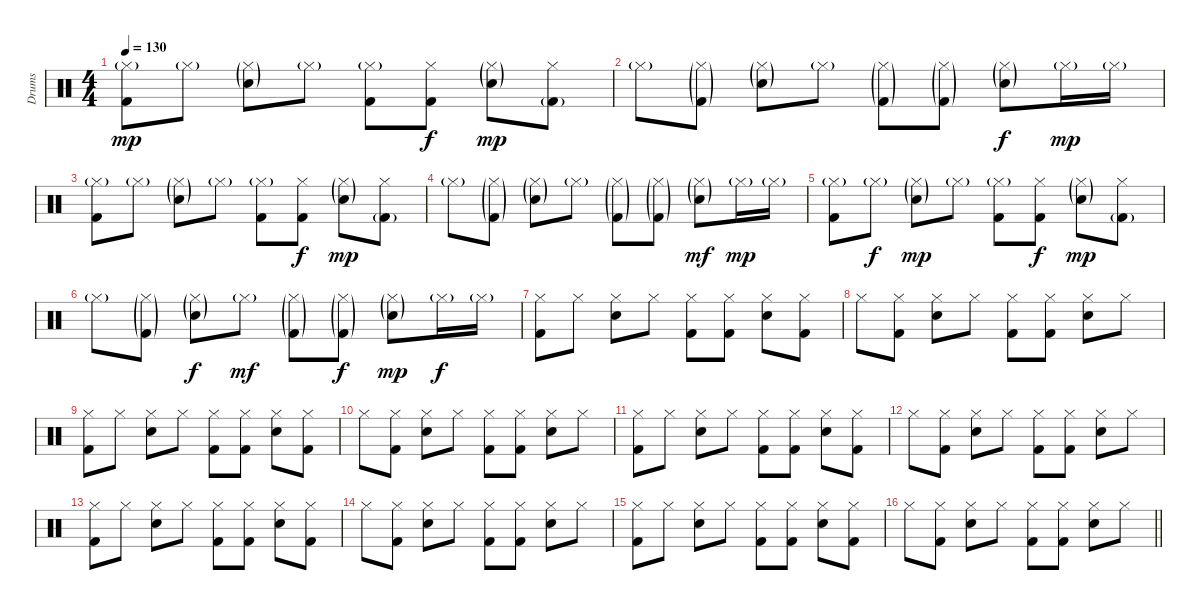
\track ("Drums" "Drums") {instrument percussion}
\staff {score}
\articulation defaults
\ts (4 4)
\tempo 130
\clef neutral
\ks c
("Hi-Hat (closed)"{g} "Kick (hit) 2").8{dy mp} "Hi-Hat (closed)"{g}.8 ("Hi-Hat (closed)"{g} "Electric Snare (hit)"{g}).8 "Hi-Hat (closed)"{g}.8 ("Hi-Hat (closed)"{g} "Kick (hit) 2").8 ("Hi-Hat (closed)" "Kick (hit) 2").8{dy f} ("Hi-Hat (closed)"{g} "Electric Snare (hit)"{g}).8{dy mp} ("Hi-Hat (closed)" "Kick (hit) 2"{g}).8 |
"Hi-Hat (closed)"{g}.8 ("Hi-Hat (closed)"{g} "Kick (hit) 2"{g}).8 ("Hi-Hat (closed)"{g} "Electric Snare (hit)"{g}).8 "Hi-Hat (closed)"{g}.8 ("Hi-Hat (closed)"{g} "Kick (hit) 2"{g}).8 ("Hi-Hat (closed)"{g} "Kick (hit) 2"{g}).8 ("Hi-Hat (closed)"{g} "Electric Snare (hit)"{g}).8{dy f} "Hi-Hat (closed)"{g}.16{dy mp} "Hi-Hat (closed)"{g}.16 |
("Hi-Hat (closed)"{g} "Kick (hit) 2").8 "Hi-Hat (closed)"{g}.8 ("Hi-Hat (closed)"{g} "Electric Snare (hit)"{g}).8 "Hi-Hat (closed)"{g}.8 ("Hi-Hat (closed)"{g} "Kick (hit) 2").8 ("Hi-Hat (closed)" "Kick (hit) 2").8{dy f} ("Hi-Hat (closed)"{g} "Electric Snare (hit)"{g}).8{dy mp} ("Hi-Hat (closed)" "Kick (hit) 2"{g}).8 |
"Hi-Hat (closed)"{g}.8 ("Hi-Hat (closed)"{g} "Kick (hit) 2"{g}).8 ("Hi-Hat (closed)"{g} "Electric Snare (hit)"{g}).8 "Hi-Hat (closed)"{g}.8 ("Hi-Hat (closed)"{g} "Kick (hit) 2"{g}).8 ("Hi-Hat (closed)"{g} "Kick (hit) 2"{g}).8 ("Hi-Hat (closed)"{g} "Electric Snare (hit)"{g}).8{dy mf} "Hi-Hat (closed)"{g}.16{dy mp} "Hi-Hat (closed)"{g}.16 |
("Hi-Hat (closed)"{g} "Kick (hit) 2").8 "Hi-Hat (closed)"{g}.8{dy f} ("Hi-Hat (closed)"{g} "Electric Snare (hit)"{g}).8{dy mp} "Hi-Hat (closed)"{g}.8 ("Hi-Hat (closed)"{g} "Kick (hit) 2").8 ("Hi-Hat (closed)" "Kick (hit) 2").8{dy f} ("Hi-Hat (closed)"{g} "Electric Snare (hit)"{g}).8{dy mp} ("Hi-Hat (closed)" "Kick (hit) 2"{g}).8 |
"Hi-Hat (closed)"{g}.8 ("Hi-Hat (closed)"{g} "Kick (hit) 2"{g}).8 ("Hi-Hat (closed)"{g} "Electric Snare (hit)"{g}).8{dy f} "Hi-Hat (closed)"{g}.8{dy mf} ("Hi-Hat (closed)"{g} "Kick (hit) 2"{g}).8 ("Hi-Hat (closed)"{g} "Kick (hit) 2"{g}).8{dy f} ("Hi-Hat (closed)"{g} "Electric Snare (hit)"{g}).8{dy mp} "Hi-Hat (closed)"{g}.16{dy f} "Hi-Hat (closed)"{g}.16 |
("Hi-Hat (closed)" "Kick (hit) 2").8 "Hi-Hat (closed)".8 ("Hi-Hat (closed)" "Electric Snare (hit)").8 "Hi-Hat (closed)".8 ("Hi-Hat (closed)" "Kick (hit) 2").8 ("Hi-Hat (closed)" "Kick (hit) 2").8 ("Hi-Hat (closed)" "Electric Snare (hit)").8 ("Hi-Hat (closed)" "Kick (hit) 2").8 |
"Hi-Hat (closed)".8 ("Hi-Hat (closed)" "Kick (hit) 2").8 ("Hi-Hat (closed)" "Electric Snare (hit)").8 "Hi-Hat (closed)".8 ("Hi-Hat (closed)" "Kick (hit) 2").8 ("Hi-Hat (closed)" "Kick (hit) 2").8 ("Hi-Hat (closed)" "Electric Snare (hit)").8 "Hi-Hat (closed)".8 |
("Hi-Hat (closed)" "Kick (hit) 2").8 "Hi-Hat (closed)".8 ("Hi-Hat (closed)" "Electric Snare (hit)").8 "Hi-Hat (closed)".8 ("Hi-Hat (closed)" "Kick (hit) 2").8 ("Hi-Hat (closed)" "Kick (hit) 2").8 ("Hi-Hat (closed)" "Electric Snare (hit)").8 ("Hi-Hat (closed)" "Kick (hit) 2").8 |
"Hi-Hat (closed)".8 ("Hi-Hat (closed)" "Kick (hit) 2").8 ("Hi-Hat (closed)" "Electric Snare (hit)").8 "Hi-Hat (closed)".8 ("Hi-Hat (closed)" "Kick (hit) 2").8 ("Hi-Hat (closed)" "Kick (hit) 2").8 ("Hi-Hat (closed)" "Electric Snare (hit)").8 "Hi-Hat (closed)".8 |
("Hi-Hat (closed)" "Kick (hit) 2").8 "Hi-Hat (closed)".8 ("Hi-Hat (closed)" "Electric Snare (hit)").8 "Hi-Hat (closed)".8 ("Hi-Hat (closed)" "Kick (hit) 2").8 ("Hi-Hat (closed)" "Kick (hit) 2").8 ("Hi-Hat (closed)" "Electric Snare (hit)").8 ("Hi-Hat (closed)" "Kick (hit) 2").8 |
"Hi-Hat (closed)".8 ("Hi-Hat (closed)" "Kick (hit) 2").8 ("Hi-Hat (closed)" "Electric Snare (hit)").8 "Hi-Hat (closed)".8 ("Hi-Hat (closed)" "Kick (hit) 2").8 ("Hi-Hat (closed)" "Kick (hit) 2").8 ("Hi-Hat (closed)" "Electric Snare (hit)").8 "Hi-Hat (closed)".8 |
("Hi-Hat (closed)" "Kick (hit) 2").8 "Hi-Hat (closed)".8 ("Hi-Hat (closed)" "Electric Snare (hit)").8 "Hi-Hat (closed)".8 ("Hi-Hat (closed)" "Kick (hit) 2").8 ("Hi-Hat (closed)" "Kick (hit) 2").8 ("Hi-Hat (closed)" "Electric Snare (hit)").8 ("Hi-Hat (closed)" "Kick (hit) 2").8 |
"Hi-Hat (closed)".8 ("Hi-Hat (closed)" "Kick (hit) 2").8 ("Hi-Hat (closed)" "Electric Snare (hit)").8 "Hi-Hat (closed)".8 ("Hi-Hat (closed)" "Kick (hit) 2").8 ("Hi-Hat (closed)" "Kick (hit) 2").8 ("Hi-Hat (closed)" "Electric Snare (hit)").8 "Hi-Hat (closed)".8 |
("Hi-Hat (closed)" "Kick (hit) 2").8 "Hi-Hat (closed)".8 ("Hi-Hat (closed)" "Electric Snare (hit)").8 "Hi-Hat (closed)".8 ("Hi-Hat (closed)" "Kick (hit) 2").8 ("Hi-Hat (closed)" "Kick (hit) 2").8 ("Hi-Hat (closed)" "Electric Snare (hit)").8 ("Hi-Hat (closed)" "Kick (hit) 2").8 |
\barLineRight lightlight "Hi-Hat (closed)".8
("Hi-Hat (closed)" "Kick (hit) 2").8 ("Hi-Hat (closed)" "Electric Snare (hit)").8 "Hi-Hat (closed)".8 ("Hi-Hat (closed)" "Kick (hit) 2").8 ("Hi-Hat (closed)" "Kick (hit) 2").8 ("Hi-Hat (closed)" "Electric Snare (hit)").8 "Hi-Hat (closed)".8
